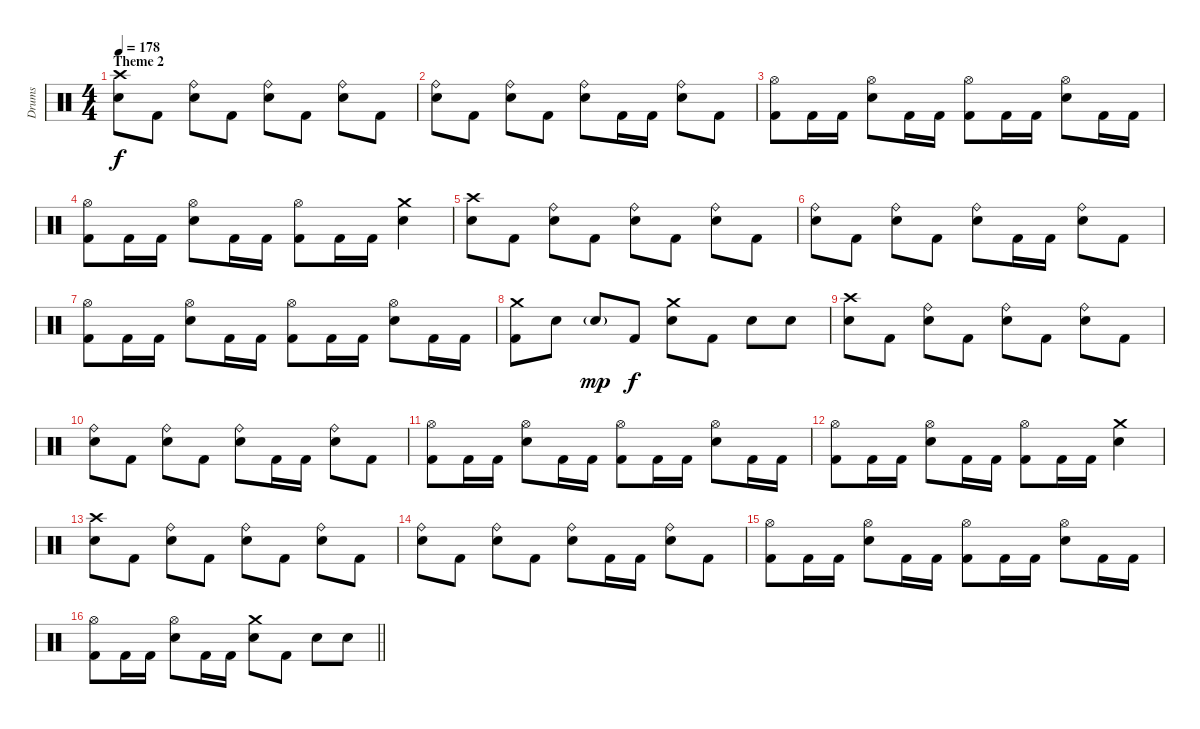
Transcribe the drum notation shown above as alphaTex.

\track ("Drums" "Drums") {instrument percussion}
\staff {score}
\articulation defaults
\ts (4 4)
\section ("" "Theme 2")
\tempo 178
\clef neutral
\ks c
("Crash high (hit)" "Snare (hit) 2").8{dy f} "Kick (hit) 2".8 ("Ride (bell)" "Snare (hit) 2").8 "Kick (hit) 2".8 ("Ride (bell)" "Snare (hit) 2").8 "Kick (hit) 2".8 ("Ride (bell)" "Snare (hit) 2").8 "Kick (hit) 2".8 |
("Ride (bell)" "Snare (hit) 2").8 "Kick (hit) 2".8 ("Ride (bell)" "Snare (hit) 2").8 "Kick (hit) 2".8 ("Ride (bell)" "Snare (hit) 2").8 "Kick (hit) 2".16 "Kick (hit) 2".16 ("Ride (bell)" "Snare (hit) 2").8 "Kick (hit) 2".8 |
("Hi-Hat (open)" "Kick (hit) 2").8 "Kick (hit) 2".16 "Kick (hit) 2".16 ("Hi-Hat (open)" "Snare (hit) 2").8 "Kick (hit) 2".16 "Kick (hit) 2".16 ("Hi-Hat (open)" "Kick (hit) 2").8 "Kick (hit) 2".16 "Kick (hit) 2".16 ("Hi-Hat (open)" "Snare (hit) 2").8 "Kick (hit) 2".16 "Kick (hit) 2".16 |
("Hi-Hat (open)" "Kick (hit) 2").8 "Kick (hit) 2".16 "Kick (hit) 2".16 ("Hi-Hat (open)" "Snare (hit) 2").8 "Kick (hit) 2".16 "Kick (hit) 2".16 ("Hi-Hat (open)" "Kick (hit) 2").8 "Kick (hit) 2".16 "Kick (hit) 2".16 ("Crash medium (hit)" "Snare (hit) 2").4 |
("Crash high (hit)" "Snare (hit) 2").8 "Kick (hit) 2".8 ("Ride (bell)" "Snare (hit) 2").8 "Kick (hit) 2".8 ("Ride (bell)" "Snare (hit) 2").8 "Kick (hit) 2".8 ("Ride (bell)" "Snare (hit) 2").8 "Kick (hit) 2".8 |
("Ride (bell)" "Snare (hit) 2").8 "Kick (hit) 2".8 ("Ride (bell)" "Snare (hit) 2").8 "Kick (hit) 2".8 ("Ride (bell)" "Snare (hit) 2").8 "Kick (hit) 2".16 "Kick (hit) 2".16 ("Ride (bell)" "Snare (hit) 2").8 "Kick (hit) 2".8 |
("Hi-Hat (open)" "Kick (hit) 2").8 "Kick (hit) 2".16 "Kick (hit) 2".16 ("Hi-Hat (open)" "Snare (hit) 2").8 "Kick (hit) 2".16 "Kick (hit) 2".16 ("Hi-Hat (open)" "Kick (hit) 2").8 "Kick (hit) 2".16 "Kick (hit) 2".16 ("Hi-Hat (open)" "Snare (hit) 2").8 "Kick (hit) 2".16 "Kick (hit) 2".16 |
("Crash medium (hit)" "Kick (hit) 2").8 "Snare (hit) 2".8 "Snare (hit) 2"{g}.8{dy mp} "Kick (hit) 2".8{dy f} ("Crash medium (hit)" "Snare (hit) 2").8 "Kick (hit) 2".8 "Snare (hit) 2".8 "Snare (hit) 2".8 |
("Crash high (hit)" "Snare (hit) 2").8 "Kick (hit) 2".8 ("Ride (bell)" "Snare (hit) 2").8 "Kick (hit) 2".8 ("Ride (bell)" "Snare (hit) 2").8 "Kick (hit) 2".8 ("Ride (bell)" "Snare (hit) 2").8 "Kick (hit) 2".8 |
("Ride (bell)" "Snare (hit) 2").8 "Kick (hit) 2".8 ("Ride (bell)" "Snare (hit) 2").8 "Kick (hit) 2".8 ("Ride (bell)" "Snare (hit) 2").8 "Kick (hit) 2".16 "Kick (hit) 2".16 ("Ride (bell)" "Snare (hit) 2").8 "Kick (hit) 2".8 |
("Hi-Hat (open)" "Kick (hit) 2").8 "Kick (hit) 2".16 "Kick (hit) 2".16 ("Hi-Hat (open)" "Snare (hit) 2").8 "Kick (hit) 2".16 "Kick (hit) 2".16 ("Hi-Hat (open)" "Kick (hit) 2").8 "Kick (hit) 2".16 "Kick (hit) 2".16 ("Hi-Hat (open)" "Snare (hit) 2").8 "Kick (hit) 2".16 "Kick (hit) 2".16 |
("Hi-Hat (open)" "Kick (hit) 2").8 "Kick (hit) 2".16 "Kick (hit) 2".16 ("Hi-Hat (open)" "Snare (hit) 2").8 "Kick (hit) 2".16 "Kick (hit) 2".16 ("Hi-Hat (open)" "Kick (hit) 2").8 "Kick (hit) 2".16 "Kick (hit) 2".16 ("Crash medium (hit)" "Snare (hit) 2").4 |
("Crash high (hit)" "Snare (hit) 2").8 "Kick (hit) 2".8 ("Ride (bell)" "Snare (hit) 2").8 "Kick (hit) 2".8 ("Ride (bell)" "Snare (hit) 2").8 "Kick (hit) 2".8 ("Ride (bell)" "Snare (hit) 2").8 "Kick (hit) 2".8 |
("Ride (bell)" "Snare (hit) 2").8 "Kick (hit) 2".8 ("Ride (bell)" "Snare (hit) 2").8 "Kick (hit) 2".8 ("Ride (bell)" "Snare (hit) 2").8 "Kick (hit) 2".16 "Kick (hit) 2".16 ("Ride (bell)" "Snare (hit) 2").8 "Kick (hit) 2".8 |
("Hi-Hat (open)" "Kick (hit) 2").8 "Kick (hit) 2".16 "Kick (hit) 2".16 ("Hi-Hat (open)" "Snare (hit) 2").8 "Kick (hit) 2".16 "Kick (hit) 2".16 ("Hi-Hat (open)" "Kick (hit) 2").8 "Kick (hit) 2".16 "Kick (hit) 2".16 ("Hi-Hat (open)" "Snare (hit) 2").8 "Kick (hit) 2".16 "Kick (hit) 2".16 |
\barLineRight lightlight
("Hi-Hat (open)" "Kick (hit) 2").8 "Kick (hit) 2".16 "Kick (hit) 2".16 ("Hi-Hat (open)" "Snare (hit) 2").8 "Kick (hit) 2".16 "Kick (hit) 2".16 ("Crash medium (hit)" "Snare (hit) 2").8 "Kick (hit) 2".8 "Snare (hit) 2".8 "Snare (hit) 2".8
